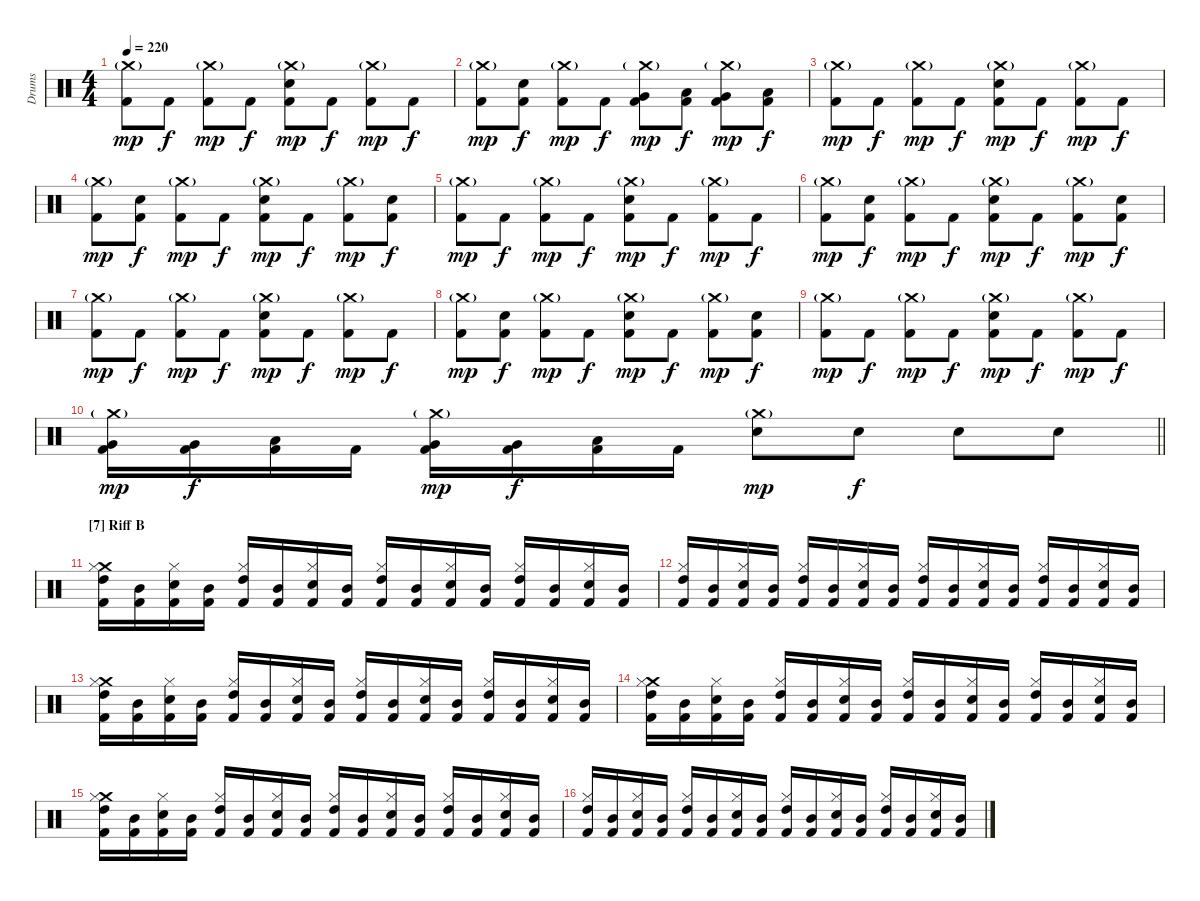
\track ("Drums" "Drums") {instrument percussion}
\staff {score}
\articulation defaults
\ts (4 4)
\tempo 220
\clef neutral
\ks c
("Crash medium (hit)"{g} "Kick (hit) 2").8{dy mp} "Kick (hit) 2".8{dy f} ("Crash medium (hit)"{g} "Kick (hit) 2").8{dy mp} "Kick (hit) 2".8{dy f} ("Crash medium (hit)"{g} "Snare (hit) 2" "Kick (hit) 2").8{dy mp} "Kick (hit) 2".8{dy f} ("Crash medium (hit)"{g} "Kick (hit) 2").8{dy mp} "Kick (hit) 2".8{dy f} |
("Crash medium (hit)"{g} "Kick (hit) 2").8{dy mp} ("Snare (hit) 2" "Kick (hit) 2").8{dy f} ("Crash medium (hit)"{g} "Kick (hit) 2").8{dy mp} "Kick (hit) 2".8{dy f} ("Crash medium (hit)"{g} "Very Low Tom (hit)" "Kick (hit) 2").8{dy mp} ("Low Floor Tom (hit)" "Kick (hit) 2").8{dy f} ("Crash medium (hit)"{g} "Very Low Tom (hit)" "Kick (hit) 2").8{dy mp} ("Low Tom (hit)" "Kick (hit) 2").8{dy f} |
("Crash medium (hit)"{g} "Kick (hit) 2").8{dy mp} "Kick (hit) 2".8{dy f} ("Crash medium (hit)"{g} "Kick (hit) 2").8{dy mp} "Kick (hit) 2".8{dy f} ("Crash medium (hit)"{g} "Snare (hit) 2" "Kick (hit) 2").8{dy mp} "Kick (hit) 2".8{dy f} ("Crash medium (hit)"{g} "Kick (hit) 2").8{dy mp} "Kick (hit) 2".8{dy f} |
("Crash medium (hit)"{g} "Kick (hit) 2").8{dy mp} ("Snare (hit) 2" "Kick (hit) 2").8{dy f} ("Crash medium (hit)"{g} "Kick (hit) 2").8{dy mp} "Kick (hit) 2".8{dy f} ("Crash medium (hit)"{g} "Snare (hit) 2" "Kick (hit) 2").8{dy mp} "Kick (hit) 2".8{dy f} ("Crash medium (hit)"{g} "Kick (hit) 2").8{dy mp} ("Snare (hit) 2" "Kick (hit) 2").8{dy f} |
("Crash medium (hit)"{g} "Kick (hit) 2").8{dy mp} "Kick (hit) 2".8{dy f} ("Crash medium (hit)"{g} "Kick (hit) 2").8{dy mp} "Kick (hit) 2".8{dy f} ("Crash medium (hit)"{g} "Snare (hit) 2" "Kick (hit) 2").8{dy mp} "Kick (hit) 2".8{dy f} ("Crash medium (hit)"{g} "Kick (hit) 2").8{dy mp} "Kick (hit) 2".8{dy f} |
("Crash medium (hit)"{g} "Kick (hit) 2").8{dy mp} ("Snare (hit) 2" "Kick (hit) 2").8{dy f} ("Crash medium (hit)"{g} "Kick (hit) 2").8{dy mp} "Kick (hit) 2".8{dy f} ("Crash medium (hit)"{g} "Snare (hit) 2" "Kick (hit) 2").8{dy mp} "Kick (hit) 2".8{dy f} ("Crash medium (hit)"{g} "Kick (hit) 2").8{dy mp} ("Snare (hit) 2" "Kick (hit) 2").8{dy f} |
("Crash medium (hit)"{g} "Kick (hit) 2").8{dy mp} "Kick (hit) 2".8{dy f} ("Crash medium (hit)"{g} "Kick (hit) 2").8{dy mp} "Kick (hit) 2".8{dy f} ("Crash medium (hit)"{g} "Snare (hit) 2" "Kick (hit) 2").8{dy mp} "Kick (hit) 2".8{dy f} ("Crash medium (hit)"{g} "Kick (hit) 2").8{dy mp} "Kick (hit) 2".8{dy f} |
("Crash medium (hit)"{g} "Kick (hit) 2").8{dy mp} ("Snare (hit) 2" "Kick (hit) 2").8{dy f} ("Crash medium (hit)"{g} "Kick (hit) 2").8{dy mp} "Kick (hit) 2".8{dy f} ("Crash medium (hit)"{g} "Snare (hit) 2" "Kick (hit) 2").8{dy mp} "Kick (hit) 2".8{dy f} ("Crash medium (hit)"{g} "Kick (hit) 2").8{dy mp} ("Snare (hit) 2" "Kick (hit) 2").8{dy f} |
("Crash medium (hit)"{g} "Kick (hit) 2").8{dy mp} "Kick (hit) 2".8{dy f} ("Crash medium (hit)"{g} "Kick (hit) 2").8{dy mp} "Kick (hit) 2".8{dy f} ("Crash medium (hit)"{g} "Snare (hit) 2" "Kick (hit) 2").8{dy mp} "Kick (hit) 2".8{dy f} ("Crash medium (hit)"{g} "Kick (hit) 2").8{dy mp} "Kick (hit) 2".8{dy f} |
\barLineRight lightlight
("Crash medium (hit)"{g} "Very Low Tom (hit)" "Kick (hit) 2").16{dy mp} ("Very Low Tom (hit)" "Kick (hit) 2").16{dy f} ("Low Floor Tom (hit)" "Kick (hit) 2").16 "Kick (hit) 2".16 ("Crash medium (hit)"{g} "Very Low Tom (hit)" "Kick (hit) 2").16{dy mp} ("Very Low Tom (hit)" "Kick (hit) 2").16{dy f} ("Low Floor Tom (hit)" "Kick (hit) 2").16 "Kick (hit) 2".16 ("Crash medium (hit)"{g} "Snare (hit) 2").8{dy mp} "Snare (hit) 2".8{dy f} "Snare (hit) 2".8 "Snare (hit) 2".8 |
\section ("" "[7] Riff B")
("Crash medium (hit)" "Hi-Hat (closed)" "High Tom (hit)" "Kick (hit) 2").16 ("Mid Tom (hit)" "Kick (hit) 2").16 ("Hi-Hat (closed)" "Electric Snare (hit)" "Kick (hit) 2").16 ("Mid Tom (hit)" "Kick (hit) 2").16 ("Hi-Hat (closed)" "High Tom (hit)" "Kick (hit) 2").16 ("Mid Tom (hit)" "Kick (hit) 2").16 ("Hi-Hat (closed)" "Electric Snare (hit)" "Kick (hit) 2").16 ("Mid Tom (hit)" "Kick (hit) 2").16 ("Hi-Hat (closed)" "High Tom (hit)" "Kick (hit) 2").16 ("Mid Tom (hit)" "Kick (hit) 2").16 ("Hi-Hat (closed)" "Electric Snare (hit)" "Kick (hit) 2").16 ("Mid Tom (hit)" "Kick (hit) 2").16 ("Hi-Hat (closed)" "High Tom (hit)" "Kick (hit) 2").16 ("Mid Tom (hit)" "Kick (hit) 2").16 ("Hi-Hat (closed)" "Electric Snare (hit)" "Kick (hit) 2").16 ("Mid Tom (hit)" "Kick (hit) 2").16 |
("Hi-Hat (closed)" "High Tom (hit)" "Kick (hit) 2").16 ("Mid Tom (hit)" "Kick (hit) 2").16 ("Hi-Hat (closed)" "Electric Snare (hit)" "Kick (hit) 2").16 ("Mid Tom (hit)" "Kick (hit) 2").16 ("Hi-Hat (closed)" "High Tom (hit)" "Kick (hit) 2").16 ("Mid Tom (hit)" "Kick (hit) 2").16 ("Hi-Hat (closed)" "Electric Snare (hit)" "Kick (hit) 2").16 ("Mid Tom (hit)" "Kick (hit) 2").16 ("Hi-Hat (closed)" "High Tom (hit)" "Kick (hit) 2").16 ("Mid Tom (hit)" "Kick (hit) 2").16 ("Hi-Hat (closed)" "Electric Snare (hit)" "Kick (hit) 2").16 ("Mid Tom (hit)" "Kick (hit) 2").16 ("Hi-Hat (closed)" "High Tom (hit)" "Kick (hit) 2").16 ("Mid Tom (hit)" "Kick (hit) 2").16 ("Hi-Hat (closed)" "Electric Snare (hit)" "Kick (hit) 2").16 ("Mid Tom (hit)" "Kick (hit) 2").16 |
("Crash medium (hit)" "Hi-Hat (closed)" "High Tom (hit)" "Kick (hit) 2").16 ("Mid Tom (hit)" "Kick (hit) 2").16 ("Hi-Hat (closed)" "Electric Snare (hit)" "Kick (hit) 2").16 ("Mid Tom (hit)" "Kick (hit) 2").16 ("Hi-Hat (closed)" "High Tom (hit)" "Kick (hit) 2").16 ("Mid Tom (hit)" "Kick (hit) 2").16 ("Hi-Hat (closed)" "Electric Snare (hit)" "Kick (hit) 2").16 ("Mid Tom (hit)" "Kick (hit) 2").16 ("Hi-Hat (closed)" "High Tom (hit)" "Kick (hit) 2").16 ("Mid Tom (hit)" "Kick (hit) 2").16 ("Hi-Hat (closed)" "Electric Snare (hit)" "Kick (hit) 2").16 ("Mid Tom (hit)" "Kick (hit) 2").16 ("Hi-Hat (closed)" "High Tom (hit)" "Kick (hit) 2").16 ("Mid Tom (hit)" "Kick (hit) 2").16 ("Hi-Hat (closed)" "Electric Snare (hit)" "Kick (hit) 2").16 ("Mid Tom (hit)" "Kick (hit) 2").16 |
("Crash medium (hit)" "Hi-Hat (closed)" "High Tom (hit)" "Kick (hit) 2").16 ("Mid Tom (hit)" "Kick (hit) 2").16 ("Hi-Hat (closed)" "Electric Snare (hit)" "Kick (hit) 2").16 ("Mid Tom (hit)" "Kick (hit) 2").16 ("Hi-Hat (closed)" "High Tom (hit)" "Kick (hit) 2").16 ("Mid Tom (hit)" "Kick (hit) 2").16 ("Hi-Hat (closed)" "Electric Snare (hit)" "Kick (hit) 2").16 ("Mid Tom (hit)" "Kick (hit) 2").16 ("Hi-Hat (closed)" "High Tom (hit)" "Kick (hit) 2").16 ("Mid Tom (hit)" "Kick (hit) 2").16 ("Hi-Hat (closed)" "Electric Snare (hit)" "Kick (hit) 2").16 ("Mid Tom (hit)" "Kick (hit) 2").16 ("Hi-Hat (closed)" "High Tom (hit)" "Kick (hit) 2").16 ("Mid Tom (hit)" "Kick (hit) 2").16 ("Hi-Hat (closed)" "Electric Snare (hit)" "Kick (hit) 2").16 ("Mid Tom (hit)" "Kick (hit) 2").16 |
("Crash medium (hit)" "Hi-Hat (closed)" "High Tom (hit)" "Kick (hit) 2").16 ("Mid Tom (hit)" "Kick (hit) 2").16 ("Hi-Hat (closed)" "Electric Snare (hit)" "Kick (hit) 2").16 ("Mid Tom (hit)" "Kick (hit) 2").16 ("Hi-Hat (closed)" "High Tom (hit)" "Kick (hit) 2").16 ("Mid Tom (hit)" "Kick (hit) 2").16 ("Hi-Hat (closed)" "Electric Snare (hit)" "Kick (hit) 2").16 ("Mid Tom (hit)" "Kick (hit) 2").16 ("Hi-Hat (closed)" "High Tom (hit)" "Kick (hit) 2").16 ("Mid Tom (hit)" "Kick (hit) 2").16 ("Hi-Hat (closed)" "Electric Snare (hit)" "Kick (hit) 2").16 ("Mid Tom (hit)" "Kick (hit) 2").16 ("Hi-Hat (closed)" "High Tom (hit)" "Kick (hit) 2").16 ("Mid Tom (hit)" "Kick (hit) 2").16 ("Hi-Hat (closed)" "Electric Snare (hit)" "Kick (hit) 2").16 ("Mid Tom (hit)" "Kick (hit) 2").16 |
("Hi-Hat (closed)" "High Tom (hit)" "Kick (hit) 2").16 ("Mid Tom (hit)" "Kick (hit) 2").16 ("Hi-Hat (closed)" "Electric Snare (hit)" "Kick (hit) 2").16 ("Mid Tom (hit)" "Kick (hit) 2").16 ("Hi-Hat (closed)" "High Tom (hit)" "Kick (hit) 2").16 ("Mid Tom (hit)" "Kick (hit) 2").16 ("Hi-Hat (closed)" "Electric Snare (hit)" "Kick (hit) 2").16 ("Mid Tom (hit)" "Kick (hit) 2").16 ("Hi-Hat (closed)" "High Tom (hit)" "Kick (hit) 2").16 ("Mid Tom (hit)" "Kick (hit) 2").16 ("Hi-Hat (closed)" "Electric Snare (hit)" "Kick (hit) 2").16 ("Mid Tom (hit)" "Kick (hit) 2").16 ("Hi-Hat (closed)" "High Tom (hit)" "Kick (hit) 2").16 ("Mid Tom (hit)" "Kick (hit) 2").16 ("Hi-Hat (closed)" "Electric Snare (hit)" "Kick (hit) 2").16 ("Mid Tom (hit)" "Kick (hit) 2").16
